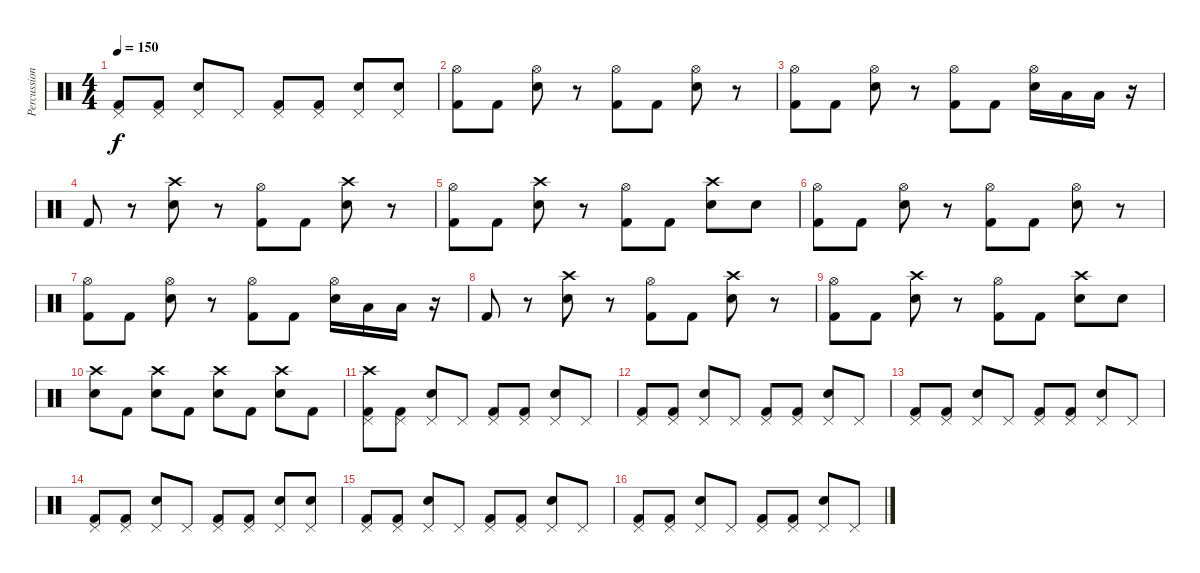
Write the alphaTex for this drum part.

\track ("Percussion" "Percussion") {instrument percussion}
\staff {score}
\articulation defaults
\ts (4 4)
\tempo 150
\clef neutral
\ks c
("Pedal Hi-Hat (hit)" "Kick (hit) 2").8{dy f} ("Pedal Hi-Hat (hit)" "Kick (hit) 2").8 ("Pedal Hi-Hat (hit)" "Snare (hit) 2").8 "Pedal Hi-Hat (hit)".8 ("Pedal Hi-Hat (hit)" "Kick (hit) 2").8 ("Pedal Hi-Hat (hit)" "Kick (hit) 2").8 ("Pedal Hi-Hat (hit)" "Snare (hit) 2").8 ("Pedal Hi-Hat (hit)" "Snare (hit) 2").8 |
("Hi-Hat (open)" "Kick (hit) 2").8{volume 14} "Kick (hit) 2".8 ("Hi-Hat (open)" "Snare (hit) 2").8 r.8 ("Hi-Hat (open)" "Kick (hit) 2").8 "Kick (hit) 2".8 ("Hi-Hat (open)" "Snare (hit) 2").8 r.8 |
("Hi-Hat (open)" "Kick (hit) 2").8 "Kick (hit) 2".8 ("Hi-Hat (open)" "Snare (hit) 2").8 r.8 ("Hi-Hat (open)" "Kick (hit) 2").8 "Kick (hit) 2".8 ("Hi-Hat (open)" "Snare (hit) 2").16 "Low Tom (hit)".16 "Low Tom (hit)".16 r.16 |
"Kick (hit) 2".8 r.8 ("Crash high (hit)" "Snare (hit) 2").8 r.8 ("Hi-Hat (open)" "Kick (hit) 2").8 "Kick (hit) 2".8 ("Crash high (hit)" "Snare (hit) 2").8 r.8 |
("Hi-Hat (open)" "Kick (hit) 2").8 "Kick (hit) 2".8 ("Crash high (hit)" "Snare (hit) 2").8 r.8 ("Hi-Hat (open)" "Kick (hit) 2").8 "Kick (hit) 2".8 ("Crash high (hit)" "Snare (hit) 2").8 "Snare (hit) 2".8 |
("Hi-Hat (open)" "Kick (hit) 2").8 "Kick (hit) 2".8 ("Hi-Hat (open)" "Snare (hit) 2").8 r.8 ("Hi-Hat (open)" "Kick (hit) 2").8 "Kick (hit) 2".8 ("Hi-Hat (open)" "Snare (hit) 2").8 r.8 |
("Hi-Hat (open)" "Kick (hit) 2").8 "Kick (hit) 2".8 ("Hi-Hat (open)" "Snare (hit) 2").8 r.8 ("Hi-Hat (open)" "Kick (hit) 2").8 "Kick (hit) 2".8 ("Hi-Hat (open)" "Snare (hit) 2").16 "Low Tom (hit)".16 "Low Tom (hit)".16 r.16 |
"Kick (hit) 2".8 r.8 ("Crash high (hit)" "Snare (hit) 2").8 r.8 ("Hi-Hat (open)" "Kick (hit) 2").8 "Kick (hit) 2".8 ("Crash high (hit)" "Snare (hit) 2").8 r.8 |
("Hi-Hat (open)" "Kick (hit) 2").8 "Kick (hit) 2".8 ("Crash high (hit)" "Snare (hit) 2").8 r.8 ("Hi-Hat (open)" "Kick (hit) 2").8 "Kick (hit) 2".8 ("Crash high (hit)" "Snare (hit) 2").8 "Snare (hit) 2".8 |
("Crash high (hit)" "Snare (hit) 2").8 "Kick (hit) 2".8 ("Crash high (hit)" "Snare (hit) 2").8 "Kick (hit) 2".8 ("Crash high (hit)" "Snare (hit) 2").8 "Kick (hit) 2".8 ("Crash high (hit)" "Snare (hit) 2").8 "Kick (hit) 2".8 |
("Crash high (hit)" "Pedal Hi-Hat (hit)" "Kick (hit) 2").8 ("Pedal Hi-Hat (hit)" "Kick (hit) 2").8 ("Pedal Hi-Hat (hit)" "Snare (hit) 2").8 "Pedal Hi-Hat (hit)".8 ("Pedal Hi-Hat (hit)" "Kick (hit) 2").8 ("Pedal Hi-Hat (hit)" "Kick (hit) 2").8 ("Pedal Hi-Hat (hit)" "Snare (hit) 2").8 "Pedal Hi-Hat (hit)".8 |
("Pedal Hi-Hat (hit)" "Kick (hit) 2").8 ("Pedal Hi-Hat (hit)" "Kick (hit) 2").8 ("Pedal Hi-Hat (hit)" "Snare (hit) 2").8 "Pedal Hi-Hat (hit)".8 ("Pedal Hi-Hat (hit)" "Kick (hit) 2").8 ("Pedal Hi-Hat (hit)" "Kick (hit) 2").8 ("Pedal Hi-Hat (hit)" "Snare (hit) 2").8 "Pedal Hi-Hat (hit)".8 |
("Pedal Hi-Hat (hit)" "Kick (hit) 2").8 ("Pedal Hi-Hat (hit)" "Kick (hit) 2").8 ("Pedal Hi-Hat (hit)" "Snare (hit) 2").8 "Pedal Hi-Hat (hit)".8 ("Pedal Hi-Hat (hit)" "Kick (hit) 2").8 ("Pedal Hi-Hat (hit)" "Kick (hit) 2").8 ("Pedal Hi-Hat (hit)" "Snare (hit) 2").8 "Pedal Hi-Hat (hit)".8 |
("Pedal Hi-Hat (hit)" "Kick (hit) 2").8 ("Pedal Hi-Hat (hit)" "Kick (hit) 2").8 ("Pedal Hi-Hat (hit)" "Snare (hit) 2").8 "Pedal Hi-Hat (hit)".8 ("Pedal Hi-Hat (hit)" "Kick (hit) 2").8 ("Pedal Hi-Hat (hit)" "Kick (hit) 2").8 ("Pedal Hi-Hat (hit)" "Snare (hit) 2").8 ("Pedal Hi-Hat (hit)" "Snare (hit) 2").8 |
("Pedal Hi-Hat (hit)" "Kick (hit) 2").8 ("Pedal Hi-Hat (hit)" "Kick (hit) 2").8 ("Pedal Hi-Hat (hit)" "Snare (hit) 2").8 "Pedal Hi-Hat (hit)".8 ("Pedal Hi-Hat (hit)" "Kick (hit) 2").8 ("Pedal Hi-Hat (hit)" "Kick (hit) 2").8 ("Pedal Hi-Hat (hit)" "Snare (hit) 2").8 "Pedal Hi-Hat (hit)".8 |
("Pedal Hi-Hat (hit)" "Kick (hit) 2").8 ("Pedal Hi-Hat (hit)" "Kick (hit) 2").8 ("Pedal Hi-Hat (hit)" "Snare (hit) 2").8 "Pedal Hi-Hat (hit)".8 ("Pedal Hi-Hat (hit)" "Kick (hit) 2").8 ("Pedal Hi-Hat (hit)" "Kick (hit) 2").8 ("Pedal Hi-Hat (hit)" "Snare (hit) 2").8 "Pedal Hi-Hat (hit)".8
